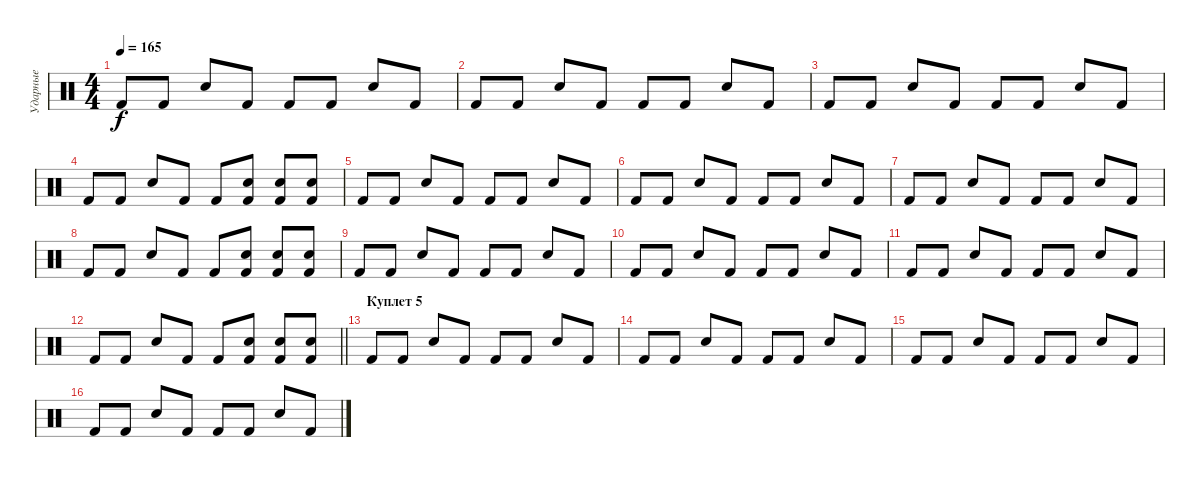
\track ("Ударные" "Ударные") {instrument percussion}
\staff {score}
\articulation defaults
\ts (4 4)
\tempo 165
\clef neutral
\ks c "Kick (hit) 2".8{dy f} "Kick (hit) 2".8 "Snare (hit) 2".8 "Kick (hit) 2".8 "Kick (hit) 2".8 "Kick (hit) 2".8 "Snare (hit) 2".8 "Kick (hit) 2".8
|
"Kick (hit) 2".8 "Kick (hit) 2".8 "Snare (hit) 2".8 "Kick (hit) 2".8 "Kick (hit) 2".8 "Kick (hit) 2".8 "Snare (hit) 2".8 "Kick (hit) 2".8 |
"Kick (hit) 2".8 "Kick (hit) 2".8 "Snare (hit) 2".8 "Kick (hit) 2".8 "Kick (hit) 2".8 "Kick (hit) 2".8 "Snare (hit) 2".8 "Kick (hit) 2".8 |
"Kick (hit) 2".8 "Kick (hit) 2".8 "Snare (hit) 2".8 "Kick (hit) 2".8 "Kick (hit) 2".8 ("Kick (hit) 2" "Snare (hit) 2").8 ("Kick (hit) 2" "Snare (hit) 2").8 ("Kick (hit) 2" "Snare (hit) 2").8 |
"Kick (hit) 2".8 "Kick (hit) 2".8 "Snare (hit) 2".8 "Kick (hit) 2".8 "Kick (hit) 2".8 "Kick (hit) 2".8 "Snare (hit) 2".8 "Kick (hit) 2".8 |
"Kick (hit) 2".8 "Kick (hit) 2".8 "Snare (hit) 2".8 "Kick (hit) 2".8 "Kick (hit) 2".8 "Kick (hit) 2".8 "Snare (hit) 2".8 "Kick (hit) 2".8 |
"Kick (hit) 2".8 "Kick (hit) 2".8 "Snare (hit) 2".8 "Kick (hit) 2".8 "Kick (hit) 2".8 "Kick (hit) 2".8 "Snare (hit) 2".8 "Kick (hit) 2".8 |
"Kick (hit) 2".8 "Kick (hit) 2".8 "Snare (hit) 2".8 "Kick (hit) 2".8 "Kick (hit) 2".8 ("Kick (hit) 2" "Snare (hit) 2").8 ("Kick (hit) 2" "Snare (hit) 2").8 ("Kick (hit) 2" "Snare (hit) 2").8 |
"Kick (hit) 2".8 "Kick (hit) 2".8 "Snare (hit) 2".8 "Kick (hit) 2".8 "Kick (hit) 2".8 "Kick (hit) 2".8 "Snare (hit) 2".8 "Kick (hit) 2".8 |
"Kick (hit) 2".8 "Kick (hit) 2".8 "Snare (hit) 2".8 "Kick (hit) 2".8 "Kick (hit) 2".8 "Kick (hit) 2".8 "Snare (hit) 2".8 "Kick (hit) 2".8 |
"Kick (hit) 2".8 "Kick (hit) 2".8 "Snare (hit) 2".8 "Kick (hit) 2".8 "Kick (hit) 2".8 "Kick (hit) 2".8 "Snare (hit) 2".8 "Kick (hit) 2".8 |
\barLineRight lightlight "Kick (hit) 2".8 "Kick (hit) 2".8 "Snare (hit) 2".8 "Kick (hit) 2".8 "Kick (hit) 2".8
("Kick (hit) 2" "Snare (hit) 2").8 ("Kick (hit) 2" "Snare (hit) 2").8 ("Kick (hit) 2" "Snare (hit) 2").8 |
\section ("" "Куплет 5")
"Kick (hit) 2".8 "Kick (hit) 2".8 "Snare (hit) 2".8 "Kick (hit) 2".8 "Kick (hit) 2".8 "Kick (hit) 2".8 "Snare (hit) 2".8 "Kick (hit) 2".8 |
"Kick (hit) 2".8 "Kick (hit) 2".8 "Snare (hit) 2".8 "Kick (hit) 2".8 "Kick (hit) 2".8 "Kick (hit) 2".8 "Snare (hit) 2".8 "Kick (hit) 2".8 |
"Kick (hit) 2".8 "Kick (hit) 2".8 "Snare (hit) 2".8 "Kick (hit) 2".8 "Kick (hit) 2".8 "Kick (hit) 2".8 "Snare (hit) 2".8 "Kick (hit) 2".8 |
"Kick (hit) 2".8 "Kick (hit) 2".8 "Snare (hit) 2".8 "Kick (hit) 2".8 "Kick (hit) 2".8 "Kick (hit) 2".8 "Snare (hit) 2".8 "Kick (hit) 2".8
